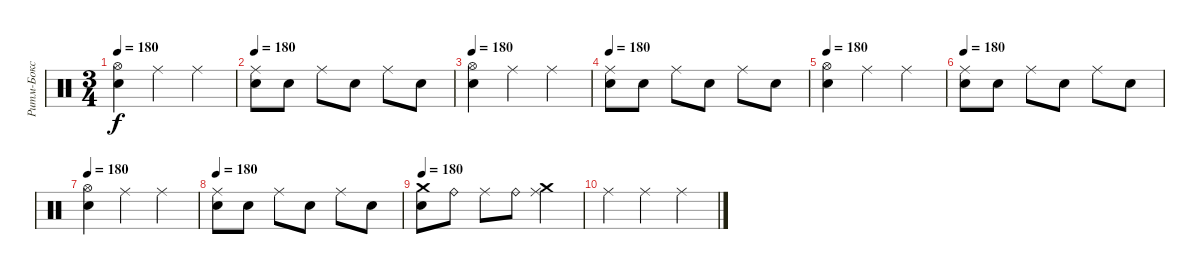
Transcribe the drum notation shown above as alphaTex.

\track ("Ритм-Бокс" "Ритм-Бокс") {instrument percussion}
\staff {score}
\articulation defaults
\ts (3 4)
\tempo 180
\clef neutral
\ks c
("Hi-Hat (open)" "Electric Snare (hit)").4{dy f} "Ride (middle)".4 "Ride (middle)".4 |
\tempo 180
("Ride (middle)" "Electric Snare (hit)").8 "Electric Snare (hit)".8 "Ride (middle)".8 "Electric Snare (hit)".8 "Ride (middle)".8 "Electric Snare (hit)".8 |
\tempo 180
("Hi-Hat (open)" "Electric Snare (hit)").4 "Ride (middle)".4 "Ride (middle)".4 |
\tempo 180
("Ride (middle)" "Electric Snare (hit)").8 "Electric Snare (hit)".8 "Ride (middle)".8 "Electric Snare (hit)".8 "Ride (middle)".8 "Electric Snare (hit)".8 |
\tempo 180
("Hi-Hat (open)" "Electric Snare (hit)").4 "Ride (middle)".4 "Ride (middle)".4 |
\tempo 180
("Ride (middle)" "Electric Snare (hit)").8 "Electric Snare (hit)".8 "Ride (middle)".8 "Electric Snare (hit)".8 "Ride (middle)".8 "Electric Snare (hit)".8 |
\tempo 180
("Hi-Hat (open)" "Electric Snare (hit)").4 "Ride (middle)".4 "Ride (middle)".4 |
\tempo 180
("Ride (middle)" "Electric Snare (hit)").8 "Electric Snare (hit)".8 "Ride (middle)".8 "Electric Snare (hit)".8 "Ride (middle)".8 "Electric Snare (hit)".8 |
\tempo 180
("Crash medium (hit)" "Electric Snare (hit)").8 "Ride (bell)".8 "Ride (middle)".8 "Ride (bell)".8 ("Ride (middle)" "Crash medium (hit)").4 |
"Ride (middle)".4 "Ride (middle)".4 "Ride (middle)".4
